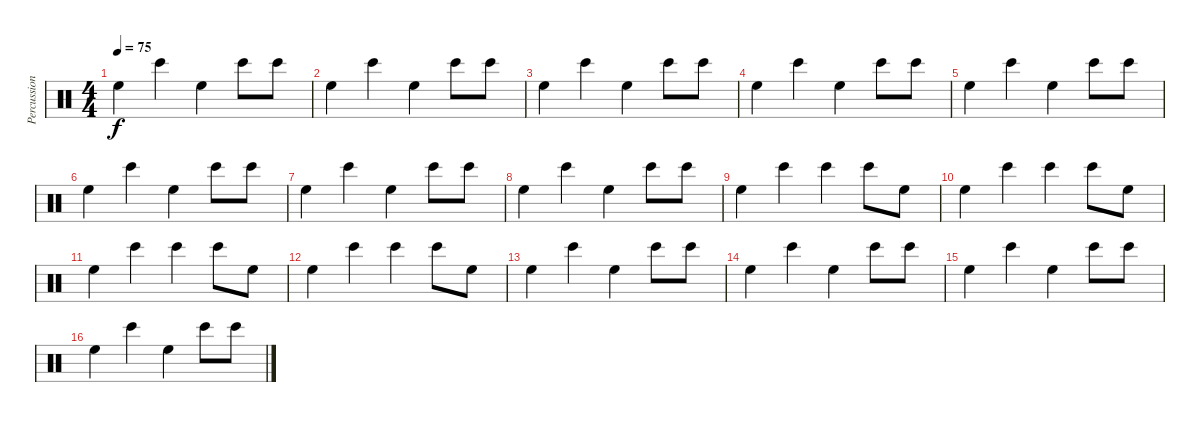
\track ("Percussions" "Percussion") {instrument percussion}
\staff {score}
\articulation defaults
\ts (4 4)
\tempo 75
\clef neutral
\ks c "High Floor Tom (hit)".4{dy f} "Bongo High (hit)".4 "High Floor Tom (hit)".4 "Bongo High (hit)".8 "Bongo High (hit)".8
|
"High Floor Tom (hit)".4 "Bongo High (hit)".4 "High Floor Tom (hit)".4 "Bongo High (hit)".8 "Bongo High (hit)".8 |
"High Floor Tom (hit)".4 "Bongo High (hit)".4 "High Floor Tom (hit)".4 "Bongo High (hit)".8 "Bongo High (hit)".8 |
"High Floor Tom (hit)".4 "Bongo High (hit)".4 "High Floor Tom (hit)".4 "Bongo High (hit)".8 "Bongo High (hit)".8 |
"High Floor Tom (hit)".4 "Bongo High (hit)".4 "High Floor Tom (hit)".4 "Bongo High (hit)".8 "Bongo High (hit)".8 |
"High Floor Tom (hit)".4 "Bongo High (hit)".4 "High Floor Tom (hit)".4 "Bongo High (hit)".8 "Bongo High (hit)".8 |
"High Floor Tom (hit)".4 "Bongo High (hit)".4 "High Floor Tom (hit)".4 "Bongo High (hit)".8 "Bongo High (hit)".8 |
"High Floor Tom (hit)".4 "Bongo High (hit)".4 "High Floor Tom (hit)".4 "Bongo High (hit)".8 "Bongo High (hit)".8 |
"High Floor Tom (hit)".4 "Bongo High (hit)".4 "Bongo High (hit)".4 "Bongo High (hit)".8 "High Floor Tom (hit)".8 |
"High Floor Tom (hit)".4 "Bongo High (hit)".4 "Bongo High (hit)".4 "Bongo High (hit)".8 "High Floor Tom (hit)".8 |
"High Floor Tom (hit)".4 "Bongo High (hit)".4 "Bongo High (hit)".4 "Bongo High (hit)".8 "High Floor Tom (hit)".8 |
"High Floor Tom (hit)".4 "Bongo High (hit)".4 "Bongo High (hit)".4 "Bongo High (hit)".8 "High Floor Tom (hit)".8 |
"High Floor Tom (hit)".4 "Bongo High (hit)".4 "High Floor Tom (hit)".4 "Bongo High (hit)".8 "Bongo High (hit)".8 |
"High Floor Tom (hit)".4 "Bongo High (hit)".4 "High Floor Tom (hit)".4 "Bongo High (hit)".8 "Bongo High (hit)".8 |
"High Floor Tom (hit)".4 "Bongo High (hit)".4 "High Floor Tom (hit)".4 "Bongo High (hit)".8 "Bongo High (hit)".8 |
"High Floor Tom (hit)".4 "Bongo High (hit)".4 "High Floor Tom (hit)".4 "Bongo High (hit)".8 "Bongo High (hit)".8
